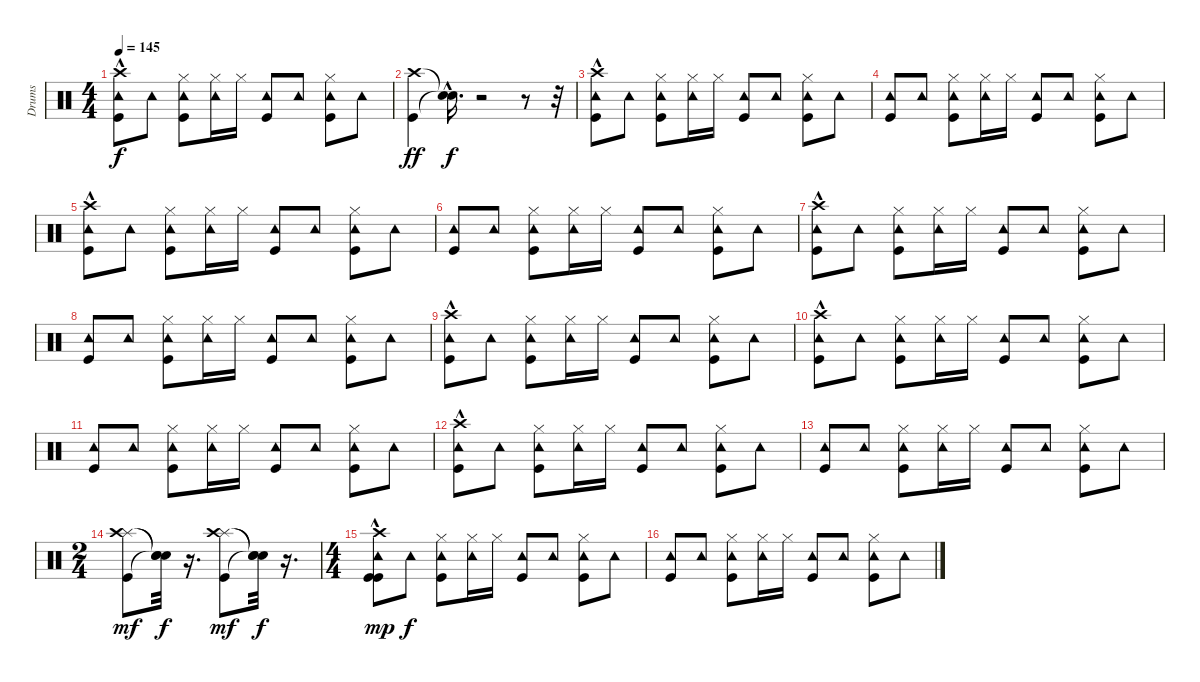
\track ("Drums" "Drums") {instrument percussion}
\staff {score}
\articulation defaults
\ts (4 4)
\tempo 145
\clef neutral
\ks c
("Tambourine (hit)" "Kick (hit)" "Crash high (hit)"{hac}).8{dy f} "Tambourine (hit)".8 ("Tambourine (hit)" "Hi-Hat (closed)" "Kick (hit)").8 ("Hi-Hat (closed)" "Tambourine (hit)").16 "Hi-Hat (closed)".16 ("Kick (hit)" "Tambourine (hit)").8 "Tambourine (hit)".8 ("Tambourine (hit)" "Hi-Hat (closed)" "Kick (hit)").8 "Tambourine (hit)".8 |
("Crash high (hit)" "Kick (hit)").4{dy ff} ("Snare (hit)"{hac t} "Snare (hit)"{hac t}).16{d dy f} r.2 r.8 r.32 |
("Tambourine (hit)" "Kick (hit)" "Crash high (hit)"{hac}).8 "Tambourine (hit)".8 ("Hi-Hat (closed)" "Kick (hit)" "Tambourine (hit)").8 ("Tambourine (hit)" "Hi-Hat (closed)").16 "Hi-Hat (closed)".16 ("Tambourine (hit)" "Kick (hit)").8 "Tambourine (hit)".8 ("Kick (hit)" "Tambourine (hit)" "Hi-Hat (closed)").8 "Tambourine (hit)".8 |
("Tambourine (hit)" "Kick (hit)").8 "Tambourine (hit)".8 ("Tambourine (hit)" "Hi-Hat (closed)" "Kick (hit)").8 ("Hi-Hat (closed)" "Tambourine (hit)").16 "Hi-Hat (closed)".16 ("Kick (hit)" "Tambourine (hit)").8 "Tambourine (hit)".8 ("Hi-Hat (closed)" "Kick (hit)" "Tambourine (hit)").8 "Tambourine (hit)".8 |
("Kick (hit)" "Crash high (hit)"{hac} "Tambourine (hit)").8 "Tambourine (hit)".8 ("Tambourine (hit)" "Hi-Hat (closed)" "Kick (hit)").8 ("Tambourine (hit)" "Hi-Hat (closed)").16 "Hi-Hat (closed)".16 ("Tambourine (hit)" "Kick (hit)").8 "Tambourine (hit)".8 ("Tambourine (hit)" "Hi-Hat (closed)" "Kick (hit)").8 "Tambourine (hit)".8 |
("Tambourine (hit)" "Kick (hit)").8 "Tambourine (hit)".8 ("Kick (hit)" "Tambourine (hit)" "Hi-Hat (closed)").8 ("Tambourine (hit)" "Hi-Hat (closed)").16 "Hi-Hat (closed)".16 ("Tambourine (hit)" "Kick (hit)").8 "Tambourine (hit)".8 ("Tambourine (hit)" "Hi-Hat (closed)" "Kick (hit)").8 "Tambourine (hit)".8 |
("Tambourine (hit)" "Kick (hit)" "Crash high (hit)"{hac}).8 "Tambourine (hit)".8 ("Tambourine (hit)" "Hi-Hat (closed)" "Kick (hit)").8 ("Hi-Hat (closed)" "Tambourine (hit)").16 "Hi-Hat (closed)".16 ("Kick (hit)" "Tambourine (hit)").8 "Tambourine (hit)".8 ("Kick (hit)" "Tambourine (hit)" "Hi-Hat (closed)").8 "Tambourine (hit)".8 |
("Tambourine (hit)" "Kick (hit)").8 "Tambourine (hit)".8 ("Tambourine (hit)" "Hi-Hat (closed)" "Kick (hit)").8 ("Tambourine (hit)" "Hi-Hat (closed)").16 "Hi-Hat (closed)".16 ("Tambourine (hit)" "Kick (hit)").8 "Tambourine (hit)".8 ("Hi-Hat (closed)" "Kick (hit)" "Tambourine (hit)").8 "Tambourine (hit)".8 |
("Crash high (hit)"{hac} "Tambourine (hit)" "Kick (hit)").8 "Tambourine (hit)".8 ("Kick (hit)" "Tambourine (hit)" "Hi-Hat (closed)").8 ("Tambourine (hit)" "Hi-Hat (closed)").16 "Hi-Hat (closed)".16 ("Tambourine (hit)" "Kick (hit)").8 "Tambourine (hit)".8 ("Tambourine (hit)" "Hi-Hat (closed)" "Kick (hit)").8 "Tambourine (hit)".8 |
("Tambourine (hit)" "Kick (hit)" "Crash high (hit)"{hac}).8 "Tambourine (hit)".8 ("Hi-Hat (closed)" "Kick (hit)" "Tambourine (hit)").8 ("Tambourine (hit)" "Hi-Hat (closed)").16 "Hi-Hat (closed)".16 ("Tambourine (hit)" "Kick (hit)").8 "Tambourine (hit)".8 ("Tambourine (hit)" "Hi-Hat (closed)" "Kick (hit)").8 "Tambourine (hit)".8 |
("Tambourine (hit)" "Kick (hit)").8 "Tambourine (hit)".8 ("Tambourine (hit)" "Hi-Hat (closed)" "Kick (hit)").8 ("Hi-Hat (closed)" "Tambourine (hit)").16 "Hi-Hat (closed)".16 ("Kick (hit)" "Tambourine (hit)").8 "Tambourine (hit)".8 ("Hi-Hat (closed)" "Kick (hit)" "Tambourine (hit)").8 "Tambourine (hit)".8 |
("Crash high (hit)"{hac} "Tambourine (hit)" "Kick (hit)").8 "Tambourine (hit)".8 ("Tambourine (hit)" "Hi-Hat (closed)" "Kick (hit)").8 ("Tambourine (hit)" "Hi-Hat (closed)").16 "Hi-Hat (closed)".16 ("Tambourine (hit)" "Kick (hit)").8 "Tambourine (hit)".8 ("Hi-Hat (closed)" "Kick (hit)" "Tambourine (hit)").8 "Tambourine (hit)".8 |
("Tambourine (hit)" "Kick (hit)").8 "Tambourine (hit)".8 ("Kick (hit)" "Tambourine (hit)" "Hi-Hat (closed)").8 ("Tambourine (hit)" "Hi-Hat (closed)").16 "Hi-Hat (closed)".16 ("Tambourine (hit)" "Kick (hit)").8 "Tambourine (hit)".8 ("Kick (hit)" "Tambourine (hit)" "Hi-Hat (closed)").8 "Tambourine (hit)".8 |
\ts (2 4)
("Splash (hit)" "Crash high (hit)" "Kick (hit)").8{dy mf} ("Snare (hit)"{t} "Snare (hit)"{t} "Snare (hit)"{t}).32{dy f} r.16{d} ("Splash (hit)" "Crash high (hit)" "Kick (hit)").8{dy mf} ("Snare (hit)"{t} "Snare (hit)"{t} "Snare (hit)"{t}).32{dy f} r.16{d} |
\ts (4 4)
("Kick (hit)" "Tambourine (hit)" "Kick (hit)" "Crash high (hit)"{hac}).8{dy mp} "Tambourine (hit)".8{dy f} ("Tambourine (hit)" "Hi-Hat (closed)" "Kick (hit)").8 ("Hi-Hat (closed)" "Tambourine (hit)").16 "Hi-Hat (closed)".16 ("Kick (hit)" "Tambourine (hit)").8 "Tambourine (hit)".8 ("Tambourine (hit)" "Hi-Hat (closed)" "Kick (hit)").8 "Tambourine (hit)".8 |
("Tambourine (hit)" "Kick (hit)").8 "Tambourine (hit)".8 ("Tambourine (hit)" "Hi-Hat (closed)" "Kick (hit)").8 ("Tambourine (hit)" "Hi-Hat (closed)").16 "Hi-Hat (closed)".16 ("Tambourine (hit)" "Kick (hit)").8 "Tambourine (hit)".8 ("Kick (hit)" "Hi-Hat (closed)" "Tambourine (hit)").8 "Tambourine (hit)".8
